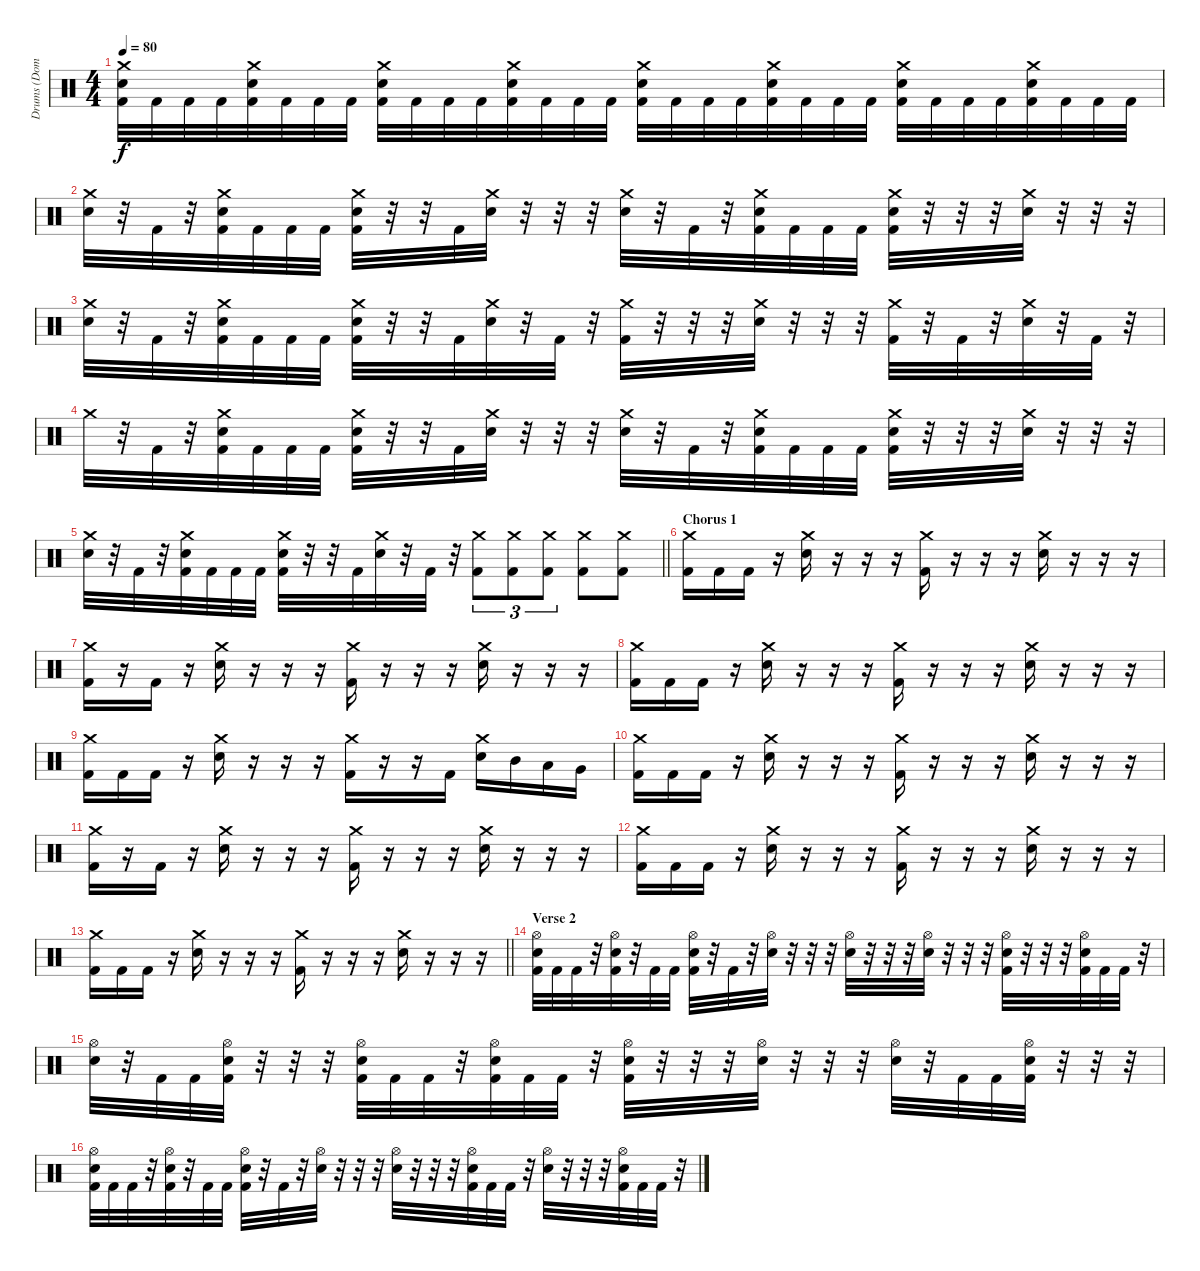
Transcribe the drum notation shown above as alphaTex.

\track ("Drums (Dominik)" "Drums (Dom") {instrument percussion}
\staff {score}
\articulation defaults
\ts (4 4)
\tempo 80
\clef neutral
\ks c
("Crash medium (hit)" "Electric Snare (hit)" "Kick (hit) 2").32{dy f} "Kick (hit) 2".32 "Kick (hit) 2".32 "Kick (hit) 2".32 ("Crash medium (hit)" "Electric Snare (hit)" "Kick (hit) 2").32 "Kick (hit) 2".32 "Kick (hit) 2".32 "Kick (hit) 2".32 ("Crash medium (hit)" "Electric Snare (hit)" "Kick (hit) 2").32 "Kick (hit) 2".32 "Kick (hit) 2".32 "Kick (hit) 2".32 ("Crash medium (hit)" "Electric Snare (hit)" "Kick (hit) 2").32 "Kick (hit) 2".32 "Kick (hit) 2".32 "Kick (hit) 2".32 ("Crash medium (hit)" "Electric Snare (hit)" "Kick (hit) 2").32 "Kick (hit) 2".32 "Kick (hit) 2".32 "Kick (hit) 2".32 ("Crash medium (hit)" "Electric Snare (hit)" "Kick (hit) 2").32 "Kick (hit) 2".32 "Kick (hit) 2".32 "Kick (hit) 2".32 ("Crash medium (hit)" "Electric Snare (hit)" "Kick (hit) 2").32 "Kick (hit) 2".32 "Kick (hit) 2".32 "Kick (hit) 2".32 ("Crash medium (hit)" "Electric Snare (hit)" "Kick (hit) 2").32 "Kick (hit) 2".32 "Kick (hit) 2".32 "Kick (hit) 2".32 |
("Crash medium (hit)" "Electric Snare (hit)").32 r.32 "Kick (hit) 2".32 r.32 ("Crash medium (hit)" "Electric Snare (hit)" "Kick (hit) 2").32 "Kick (hit) 2".32 "Kick (hit) 2".32 "Kick (hit) 2".32 ("Crash medium (hit)" "Electric Snare (hit)" "Kick (hit) 2").32 r.32 r.32 "Kick (hit) 2".32 ("Crash medium (hit)" "Electric Snare (hit)").32 r.32 r.32 r.32 ("Crash medium (hit)" "Electric Snare (hit)").32 r.32 "Kick (hit) 2".32 r.32 ("Crash medium (hit)" "Electric Snare (hit)" "Kick (hit) 2").32 "Kick (hit) 2".32 "Kick (hit) 2".32 "Kick (hit) 2".32 ("Crash medium (hit)" "Electric Snare (hit)" "Kick (hit) 2").32 r.32 r.32 r.32 ("Crash medium (hit)" "Electric Snare (hit)").32 r.32 r.32 r.32 |
("Crash medium (hit)" "Electric Snare (hit)").32 r.32 "Kick (hit) 2".32 r.32 ("Crash medium (hit)" "Electric Snare (hit)" "Kick (hit) 2").32 "Kick (hit) 2".32 "Kick (hit) 2".32 "Kick (hit) 2".32 ("Crash medium (hit)" "Electric Snare (hit)" "Kick (hit) 2").32 r.32 r.32 "Kick (hit) 2".32 ("Crash medium (hit)" "Electric Snare (hit)").32 r.32 "Kick (hit) 2".32 r.32 ("Crash medium (hit)" "Kick (hit) 2").32 r.32 r.32 r.32 ("Crash medium (hit)" "Electric Snare (hit)").32 r.32 r.32 r.32 ("Crash medium (hit)" "Kick (hit) 2").32 r.32 "Kick (hit) 2".32 r.32 ("Crash medium (hit)" "Electric Snare (hit)").32 r.32 "Kick (hit) 2".32 r.32 |
"Crash medium (hit)".32 r.32 "Kick (hit) 2".32 r.32 ("Crash medium (hit)" "Electric Snare (hit)" "Kick (hit) 2").32 "Kick (hit) 2".32 "Kick (hit) 2".32 "Kick (hit) 2".32 ("Crash medium (hit)" "Electric Snare (hit)" "Kick (hit) 2").32 r.32 r.32 "Kick (hit) 2".32 ("Crash medium (hit)" "Electric Snare (hit)").32 r.32 r.32 r.32 ("Crash medium (hit)" "Electric Snare (hit)").32 r.32 "Kick (hit) 2".32 r.32 ("Crash medium (hit)" "Electric Snare (hit)" "Kick (hit) 2").32 "Kick (hit) 2".32 "Kick (hit) 2".32 "Kick (hit) 2".32 ("Crash medium (hit)" "Electric Snare (hit)" "Kick (hit) 2").32 r.32 r.32 r.32 ("Crash medium (hit)" "Electric Snare (hit)").32 r.32 r.32 r.32 |
\barLineRight lightlight
("Crash medium (hit)" "Electric Snare (hit)").32 r.32 "Kick (hit) 2".32 r.32 ("Crash medium (hit)" "Electric Snare (hit)" "Kick (hit) 2").32 "Kick (hit) 2".32 "Kick (hit) 2".32 "Kick (hit) 2".32 ("Crash medium (hit)" "Electric Snare (hit)" "Kick (hit) 2").32 r.32 r.32 "Kick (hit) 2".32 ("Crash medium (hit)" "Electric Snare (hit)").32 r.32 "Kick (hit) 2".32 r.32 ("Crash medium (hit)" "Kick (hit) 2").8{tu (3 2)} ("Crash medium (hit)" "Kick (hit) 2").8{tu (3 2)} ("Crash medium (hit)" "Kick (hit) 2").8{tu (3 2)} ("Crash medium (hit)" "Kick (hit) 2").8 ("Crash medium (hit)" "Kick (hit) 2").8 |
\section ("" "Chorus 1")
("Crash medium (hit)" "Kick (hit) 2").16 "Kick (hit) 2".16 "Kick (hit) 2".16 r.16 ("Crash medium (hit)" "Electric Snare (hit)").16 r.16 r.16 r.16 ("Crash medium (hit)" "Kick (hit) 2").16 r.16 r.16 r.16 ("Crash medium (hit)" "Electric Snare (hit)").16 r.16 r.16 r.16 |
("Crash medium (hit)" "Kick (hit) 2").16 r.16 "Kick (hit) 2".16 r.16 ("Crash medium (hit)" "Electric Snare (hit)").16 r.16 r.16 r.16 ("Crash medium (hit)" "Kick (hit) 2").16 r.16 r.16 r.16 ("Crash medium (hit)" "Electric Snare (hit)").16 r.16 r.16 r.16 |
("Crash medium (hit)" "Kick (hit) 2").16 "Kick (hit) 2".16 "Kick (hit) 2".16 r.16 ("Crash medium (hit)" "Electric Snare (hit)").16 r.16 r.16 r.16 ("Crash medium (hit)" "Kick (hit) 2").16 r.16 r.16 r.16 ("Crash medium (hit)" "Electric Snare (hit)").16 r.16 r.16 r.16 |
("Crash medium (hit)" "Kick (hit) 2").16 "Kick (hit) 2".16 "Kick (hit) 2".16 r.16 ("Crash medium (hit)" "Electric Snare (hit)").16 r.16 r.16 r.16 ("Crash medium (hit)" "Kick (hit) 2").16 r.16 r.16 "Kick (hit) 2".16 ("Crash medium (hit)" "Electric Snare (hit)").16 "Mid Tom (hit)".16 "Low Tom (hit)".16 "Very Low Tom (hit)".16 |
("Crash medium (hit)" "Kick (hit) 2").16 "Kick (hit) 2".16 "Kick (hit) 2".16 r.16 ("Crash medium (hit)" "Electric Snare (hit)").16 r.16 r.16 r.16 ("Crash medium (hit)" "Kick (hit) 2").16 r.16 r.16 r.16 ("Crash medium (hit)" "Electric Snare (hit)").16 r.16 r.16 r.16 |
("Crash medium (hit)" "Kick (hit) 2").16 r.16 "Kick (hit) 2".16 r.16 ("Crash medium (hit)" "Electric Snare (hit)").16 r.16 r.16 r.16 ("Crash medium (hit)" "Kick (hit) 2").16 r.16 r.16 r.16 ("Crash medium (hit)" "Electric Snare (hit)").16 r.16 r.16 r.16 |
("Crash medium (hit)" "Kick (hit) 2").16 "Kick (hit) 2".16 "Kick (hit) 2".16 r.16 ("Crash medium (hit)" "Electric Snare (hit)").16 r.16 r.16 r.16 ("Crash medium (hit)" "Kick (hit) 2").16 r.16 r.16 r.16 ("Crash medium (hit)" "Electric Snare (hit)").16 r.16 r.16 r.16 |
\barLineRight lightlight
("Crash medium (hit)" "Kick (hit) 2").16 "Kick (hit) 2".16 "Kick (hit) 2".16 r.16 ("Crash medium (hit)" "Electric Snare (hit)").16 r.16 r.16 r.16 ("Crash medium (hit)" "Kick (hit) 2").16 r.16 r.16 r.16 ("Crash medium (hit)" "Electric Snare (hit)").16 r.16 r.16 r.16 |
\section ("" "Verse 2")
("Hi-Hat (open)" "Electric Snare (hit)" "Kick (hit) 2").32 "Kick (hit) 2".32 "Kick (hit) 2".32 r.32 ("Hi-Hat (open)" "Electric Snare (hit)" "Kick (hit) 2").32 r.32 "Kick (hit) 2".32 "Kick (hit) 2".32 ("Hi-Hat (open)" "Electric Snare (hit)" "Kick (hit) 2").32 r.32 "Kick (hit) 2".32 r.32 ("Hi-Hat (open)" "Electric Snare (hit)").32 r.32 r.32 r.32 ("Hi-Hat (open)" "Electric Snare (hit)").32 r.32 r.32 r.32 ("Hi-Hat (open)" "Electric Snare (hit)").32 r.32 r.32 r.32 ("Hi-Hat (open)" "Electric Snare (hit)" "Kick (hit) 2").32 r.32 r.32 r.32 ("Hi-Hat (open)" "Electric Snare (hit)" "Kick (hit) 2").32 "Kick (hit) 2".32 "Kick (hit) 2".32 r.32 |
("Hi-Hat (open)" "Electric Snare (hit)").32 r.32 "Kick (hit) 2".32 "Kick (hit) 2".32 ("Hi-Hat (open)" "Electric Snare (hit)" "Kick (hit) 2").32 r.32 r.32 r.32 ("Hi-Hat (open)" "Electric Snare (hit)" "Kick (hit) 2").32 "Kick (hit) 2".32 "Kick (hit) 2".32 r.32 ("Hi-Hat (open)" "Electric Snare (hit)" "Kick (hit) 2").32 "Kick (hit) 2".32 "Kick (hit) 2".32 r.32 ("Hi-Hat (open)" "Electric Snare (hit)" "Kick (hit) 2").32 r.32 r.32 r.32 ("Hi-Hat (open)" "Electric Snare (hit)").32 r.32 r.32 r.32 ("Hi-Hat (open)" "Electric Snare (hit)").32 r.32 "Kick (hit) 2".32 "Kick (hit) 2".32 ("Hi-Hat (open)" "Electric Snare (hit)" "Kick (hit) 2").32 r.32 r.32 r.32 |
("Hi-Hat (open)" "Electric Snare (hit)" "Kick (hit) 2").32 "Kick (hit) 2".32 "Kick (hit) 2".32 r.32 ("Hi-Hat (open)" "Electric Snare (hit)" "Kick (hit) 2").32 r.32 "Kick (hit) 2".32 "Kick (hit) 2".32 ("Hi-Hat (open)" "Electric Snare (hit)" "Kick (hit) 2").32 r.32 "Kick (hit) 2".32 r.32 ("Hi-Hat (open)" "Electric Snare (hit)").32 r.32 r.32 r.32 ("Hi-Hat (open)" "Electric Snare (hit)").32 r.32 r.32 r.32 ("Hi-Hat (open)" "Electric Snare (hit)" "Kick (hit) 2").32 "Kick (hit) 2".32 "Kick (hit) 2".32 r.32 ("Hi-Hat (open)" "Electric Snare (hit)").32 r.32 r.32 r.32 ("Hi-Hat (open)" "Electric Snare (hit)" "Kick (hit) 2").32 "Kick (hit) 2".32 "Kick (hit) 2".32 r.32
